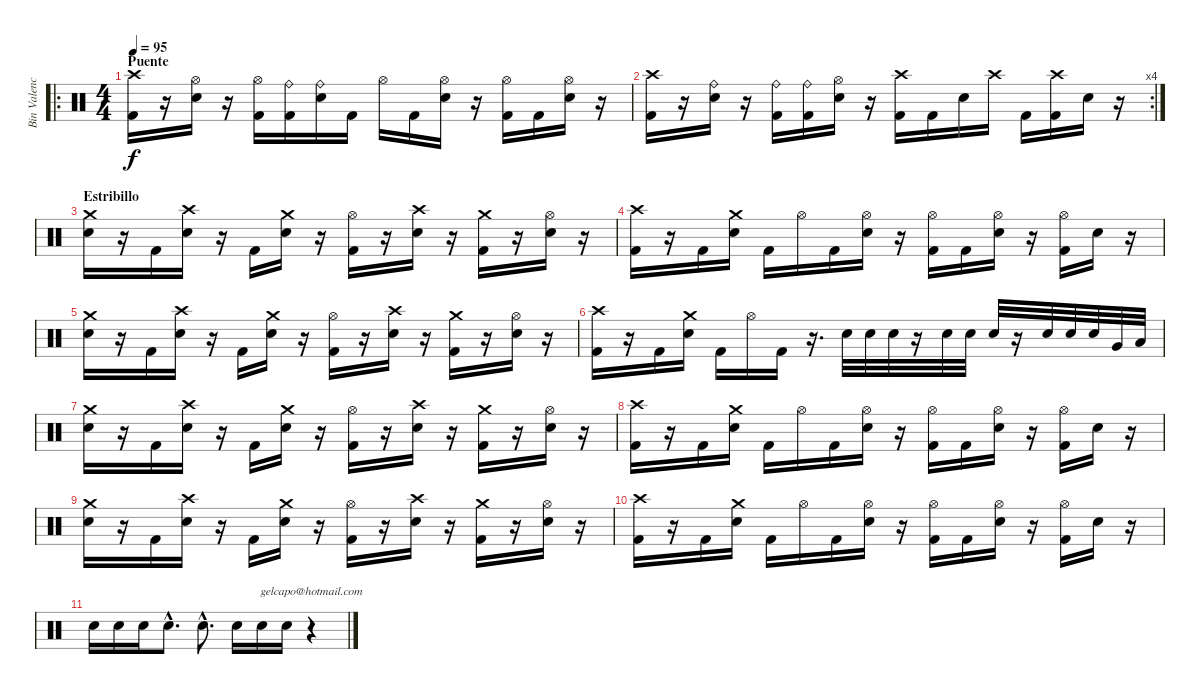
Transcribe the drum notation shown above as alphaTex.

\track ("Bin Valencia (bateria)" "Bin Valenc") {instrument percussion}
\staff {score}
\articulation defaults
\chord ("gelcapo@hotmail.com") {firstfret 0}
\ro
\ts (4 4)
\section ("" "Puente")
\tempo 95
\clef neutral
\ks c
("Crash high (hit)" "Kick (hit) 2").16{dy f} r.16 ("Hi-Hat (open)" "Snare (hit) 2").16 r.16 ("Hi-Hat (open)" "Kick (hit) 2").16 ("Ride (bell)" "Kick (hit) 2").16 ("Ride (bell)" "Snare (hit) 2").16 "Kick (hit) 2".16 "Hi-Hat (open)".16 "Kick (hit) 2".16 ("Hi-Hat (open)" "Snare (hit) 2").16 r.16 ("Hi-Hat (open)" "Kick (hit) 2").16 "Kick (hit) 2".16 ("Hi-Hat (open)" "Snare (hit) 2").16 r.16 |
\rc 4
("Crash high (hit)" "Kick (hit) 2").16 r.16 ("Ride (bell)" "Snare (hit) 2").16 r.16 ("Ride (bell)" "Kick (hit) 2").16 ("Ride (bell)" "Kick (hit) 2").16 ("Hi-Hat (open)" "Snare (hit) 2").16 r.16 ("Crash high (hit)" "Kick (hit) 2").16 "Kick (hit) 2".16 "Snare (hit) 2".16 "Crash high (hit)".16 "Kick (hit) 2".16 ("Crash high (hit)" "Kick (hit) 2").16 "Snare (hit) 2".16 r.16 |
\section ("" "Estribillo")
("Crash medium (hit)" "Snare (hit) 2").16 r.16 "Kick (hit) 2".16 ("Crash high (hit)" "Snare (hit) 2").16 r.16 "Kick (hit) 2".16 ("Crash medium (hit)" "Snare (hit) 2").16 r.16 ("Hi-Hat (open)" "Kick (hit) 2").16 r.16 ("Crash high (hit)" "Snare (hit) 2").16 r.16 ("Crash medium (hit)" "Kick (hit) 2").16 r.16 ("Hi-Hat (open)" "Snare (hit) 2").16 r.16 |
("Crash high (hit)" "Kick (hit) 2").16 r.16 "Kick (hit) 2".16 ("Crash medium (hit)" "Snare (hit) 2").16 "Kick (hit) 2".16 "Hi-Hat (open)".16 "Kick (hit) 2".16 ("Hi-Hat (open)" "Snare (hit) 2").16 r.16 ("Hi-Hat (open)" "Kick (hit) 2").16 "Kick (hit) 2".16 ("Hi-Hat (open)" "Snare (hit) 2").16 r.16 ("Hi-Hat (open)" "Kick (hit) 2").16 "Snare (hit) 2".16 r.16 |
("Crash medium (hit)" "Snare (hit) 2").16 r.16 "Kick (hit) 2".16 ("Crash high (hit)" "Snare (hit) 2").16 r.16 "Kick (hit) 2".16 ("Crash medium (hit)" "Snare (hit) 2").16 r.16 ("Hi-Hat (open)" "Kick (hit) 2").16 r.16 ("Crash high (hit)" "Snare (hit) 2").16 r.16 ("Crash medium (hit)" "Kick (hit) 2").16 r.16 ("Hi-Hat (open)" "Snare (hit) 2").16 r.16 |
("Crash high (hit)" "Kick (hit) 2").16 r.16 "Kick (hit) 2".16 ("Crash medium (hit)" "Snare (hit) 2").16 "Kick (hit) 2".16 "Hi-Hat (open)".16 "Kick (hit) 2".16 r.16{d} "Electric Snare (hit)".32 "Electric Snare (hit)".32 "Electric Snare (hit)".32 r.16 "Electric Snare (hit)".32 "Electric Snare (hit)".32 "Electric Snare (hit)".32 r.16 "Electric Snare (hit)".32 "Electric Snare (hit)".32 "Electric Snare (hit)".32 "Very Low Tom (hit)".32 "Low Floor Tom (hit)".32 |
("Crash medium (hit)" "Snare (hit) 2").16 r.16 "Kick (hit) 2".16 ("Crash high (hit)" "Snare (hit) 2").16 r.16 "Kick (hit) 2".16 ("Crash medium (hit)" "Snare (hit) 2").16 r.16 ("Hi-Hat (open)" "Kick (hit) 2").16 r.16 ("Crash high (hit)" "Snare (hit) 2").16 r.16 ("Crash medium (hit)" "Kick (hit) 2").16 r.16 ("Hi-Hat (open)" "Snare (hit) 2").16 r.16 |
("Crash high (hit)" "Kick (hit) 2").16 r.16 "Kick (hit) 2".16 ("Crash medium (hit)" "Snare (hit) 2").16 "Kick (hit) 2".16 "Hi-Hat (open)".16 "Kick (hit) 2".16 ("Hi-Hat (open)" "Snare (hit) 2").16 r.16 ("Hi-Hat (open)" "Kick (hit) 2").16 "Kick (hit) 2".16 ("Hi-Hat (open)" "Snare (hit) 2").16 r.16 ("Hi-Hat (open)" "Kick (hit) 2").16 "Snare (hit) 2".16 r.16 |
("Crash medium (hit)" "Snare (hit) 2").16 r.16 "Kick (hit) 2".16 ("Crash high (hit)" "Snare (hit) 2").16 r.16 "Kick (hit) 2".16 ("Crash medium (hit)" "Snare (hit) 2").16 r.16 ("Hi-Hat (open)" "Kick (hit) 2").16 r.16 ("Crash high (hit)" "Snare (hit) 2").16 r.16 ("Crash medium (hit)" "Kick (hit) 2").16 r.16 ("Hi-Hat (open)" "Snare (hit) 2").16 r.16 |
("Crash high (hit)" "Kick (hit) 2").16 r.16 "Kick (hit) 2".16 ("Crash medium (hit)" "Snare (hit) 2").16 "Kick (hit) 2".16 "Hi-Hat (open)".16 "Kick (hit) 2".16 ("Hi-Hat (open)" "Snare (hit) 2").16 r.16 ("Hi-Hat (open)" "Kick (hit) 2").16 "Kick (hit) 2".16 ("Hi-Hat (open)" "Snare (hit) 2").16 r.16 ("Hi-Hat (open)" "Kick (hit) 2").16 "Snare (hit) 2".16 r.16 |
"Snare (hit) 2".16 "Snare (hit) 2".16 "Snare (hit) 2".16 "Snare (hit) 2"{hac}.8{d} "Snare (hit) 2"{hac}.8{d} "Snare (hit) 2".16 "Snare (hit) 2".16 "Snare (hit) 2".16 r.4{ch "gelcapo@hotmail.com"}
